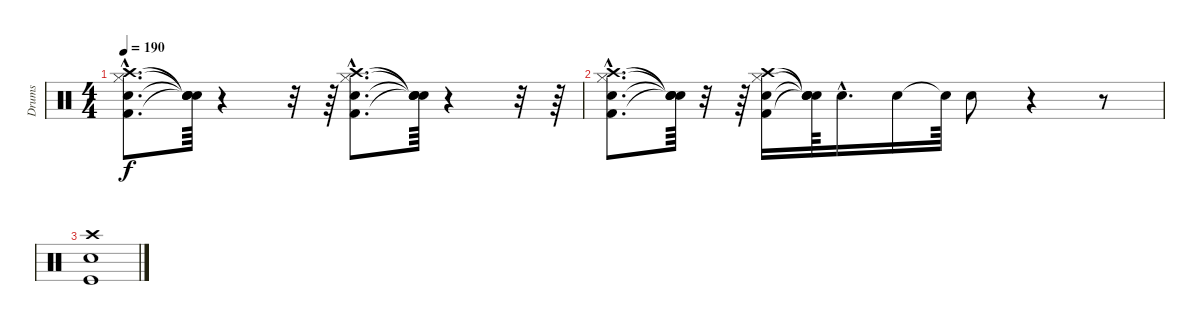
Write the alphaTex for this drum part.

\track ("Drums" "Drums") {instrument percussion}
\staff {score}
\articulation defaults
\ts (4 4)
\tempo 190
\clef neutral
\ks c
("Kick (hit) 2"{hac} "Snare (hit) 2"{hac} "Hi-Hat (closed)"{hac} "Crash high (hit)"{hac}).8{d dy f} ("Snare (hit)"{t} "Snare (hit)"{t} "Snare (hit)"{t} "Snare (hit)"{t}).64 r.4 r.32 r.64 ("Kick (hit) 2"{hac} "Snare (hit) 2"{hac} "Hi-Hat (closed)"{hac} "Crash high (hit)"{hac}).8{d} ("Snare (hit)"{t} "Snare (hit)"{t} "Snare (hit)"{t} "Snare (hit)"{t}).64 r.4 r.32 r.64 |
("Kick (hit) 2"{hac} "Snare (hit) 2"{hac} "Hi-Hat (closed)"{hac} "Crash high (hit)"{hac}).8{d} ("Snare (hit)"{t} "Snare (hit)"{t} "Snare (hit)"{t} "Snare (hit)"{t}).64 r.32 r.64 ("Kick (hit) 2" "Snare (hit) 2" "Hi-Hat (closed)" "Crash high (hit)").16 ("Snare (hit)"{t} "Snare (hit)"{t} "Snare (hit)"{t} "Snare (hit)"{t}).64 "Snare (hit) 2"{hac}.16{d} "Snare (hit) 2".16 "Snare (hit)"{t}.64 "Snare (hit) 2".8 r.4 r.8 |
("Crash high (hit)" "Kick (hit)" "Snare (hit) 2").1
